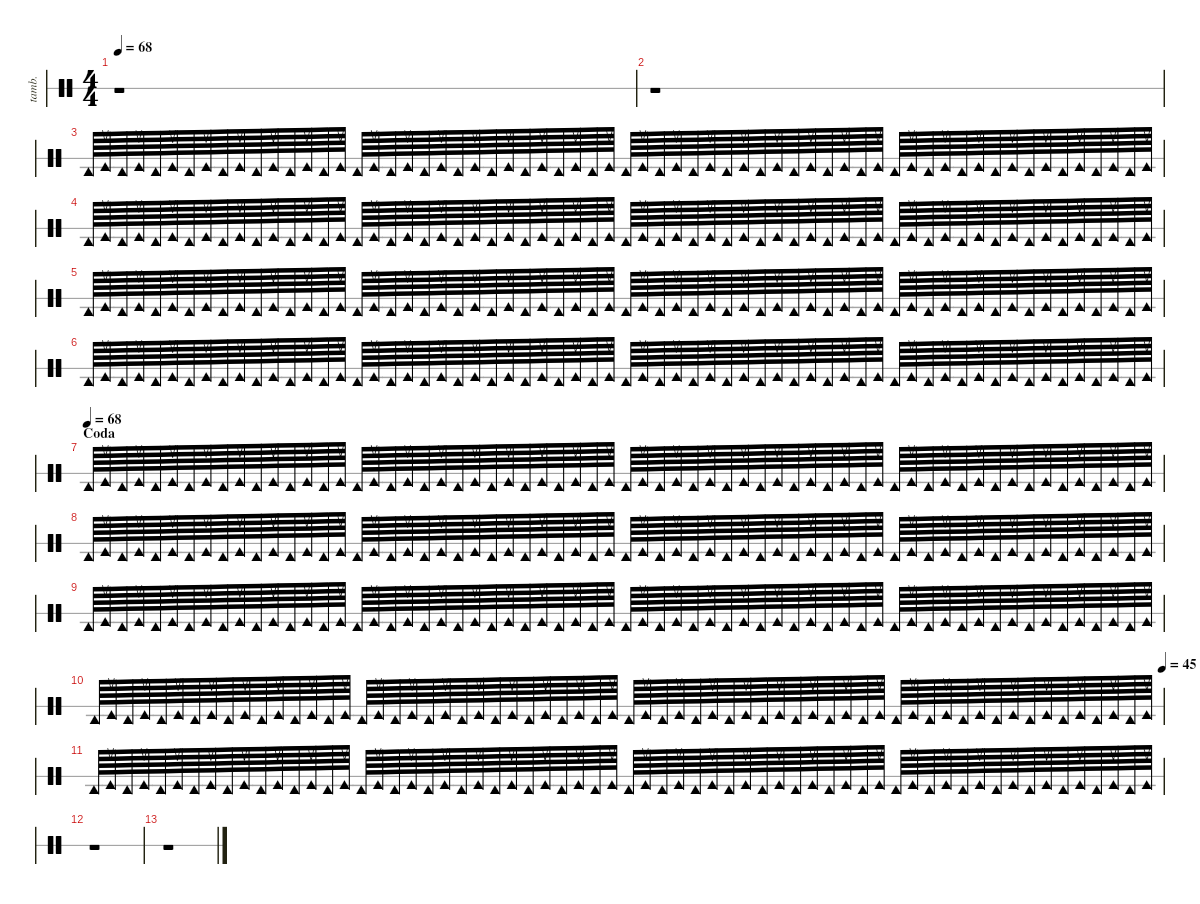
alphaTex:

\defaultSystemsLayout 4
\hideDynamics
\bracketExtendMode nobrackets
\otherSystemsTrackNameOrientation horizontal
\track ("Tambourine" "tamb.") {defaultSystemsLayout 4 instrument percussion}
\staff {score 1}
\articulation defaults
\ts (4 4)
\tempo 68
\clef neutral
\ks c
r.1{dy mp beam Down} |
r.1{beam Down} |
"Tambourine (hit)".64{beam Up} "Tambourine (return)".64{beam Up} "Tambourine (hit)".64{beam Up} "Tambourine (return)".64{beam Up} "Tambourine (hit)".64{beam Up} "Tambourine (return)".64{beam Up} "Tambourine (hit)".64{beam Up} "Tambourine (return)".64{beam Up} "Tambourine (hit)".64{beam Up} "Tambourine (return)".64{beam Up} "Tambourine (hit)".64{beam Up} "Tambourine (return)".64{beam Up} "Tambourine (hit)".64{beam Up} "Tambourine (return)".64{beam Up} "Tambourine (hit)".64{beam Up} "Tambourine (return)".64{beam Up} "Tambourine (hit)".64{beam Up} "Tambourine (return)".64{beam Up} "Tambourine (hit)".64{beam Up} "Tambourine (return)".64{beam Up} "Tambourine (hit)".64{beam Up} "Tambourine (return)".64{beam Up} "Tambourine (hit)".64{beam Up} "Tambourine (return)".64{beam Up} "Tambourine (hit)".64{beam Up} "Tambourine (return)".64{beam Up} "Tambourine (hit)".64{beam Up} "Tambourine (return)".64{beam Up} "Tambourine (hit)".64{beam Up} "Tambourine (return)".64{beam Up} "Tambourine (hit)".64{beam Up} "Tambourine (return)".64{beam Up} "Tambourine (hit)".64{beam Up} "Tambourine (return)".64{beam Up} "Tambourine (hit)".64{beam Up} "Tambourine (return)".64{beam Up} "Tambourine (hit)".64{beam Up} "Tambourine (return)".64{beam Up} "Tambourine (hit)".64{beam Up} "Tambourine (return)".64{beam Up} "Tambourine (hit)".64{beam Up} "Tambourine (return)".64{beam Up} "Tambourine (hit)".64{beam Up} "Tambourine (return)".64{beam Up} "Tambourine (hit)".64{beam Up} "Tambourine (return)".64{beam Up} "Tambourine (hit)".64{beam Up} "Tambourine (return)".64{beam Up} "Tambourine (hit)".64{beam Up} "Tambourine (return)".64{beam Up} "Tambourine (hit)".64{beam Up} "Tambourine (return)".64{beam Up} "Tambourine (hit)".64{beam Up} "Tambourine (return)".64{beam Up} "Tambourine (hit)".64{beam Up} "Tambourine (return)".64{beam Up} "Tambourine (hit)".64{beam Up} "Tambourine (return)".64{beam Up} "Tambourine (hit)".64{beam Up} "Tambourine (return)".64{beam Up} "Tambourine (hit)".64{beam Up} "Tambourine (return)".64{beam Up} "Tambourine (hit)".64{beam Up} "Tambourine (return)".64{beam Up} |
"Tambourine (hit)".64{beam Up} "Tambourine (return)".64{beam Up} "Tambourine (hit)".64{beam Up} "Tambourine (return)".64{beam Up} "Tambourine (hit)".64{beam Up} "Tambourine (return)".64{beam Up} "Tambourine (hit)".64{beam Up} "Tambourine (return)".64{beam Up} "Tambourine (hit)".64{beam Up} "Tambourine (return)".64{beam Up} "Tambourine (hit)".64{beam Up} "Tambourine (return)".64{beam Up} "Tambourine (hit)".64{beam Up} "Tambourine (return)".64{beam Up} "Tambourine (hit)".64{beam Up} "Tambourine (return)".64{beam Up} "Tambourine (hit)".64{beam Up} "Tambourine (return)".64{beam Up} "Tambourine (hit)".64{beam Up} "Tambourine (return)".64{beam Up} "Tambourine (hit)".64{beam Up} "Tambourine (return)".64{beam Up} "Tambourine (hit)".64{beam Up} "Tambourine (return)".64{beam Up} "Tambourine (hit)".64{beam Up} "Tambourine (return)".64{beam Up} "Tambourine (hit)".64{beam Up} "Tambourine (return)".64{beam Up} "Tambourine (hit)".64{beam Up} "Tambourine (return)".64{beam Up} "Tambourine (hit)".64{beam Up} "Tambourine (return)".64{beam Up} "Tambourine (hit)".64{beam Up} "Tambourine (return)".64{beam Up} "Tambourine (hit)".64{beam Up} "Tambourine (return)".64{beam Up} "Tambourine (hit)".64{beam Up} "Tambourine (return)".64{beam Up} "Tambourine (hit)".64{beam Up} "Tambourine (return)".64{beam Up} "Tambourine (hit)".64{beam Up} "Tambourine (return)".64{beam Up} "Tambourine (hit)".64{beam Up} "Tambourine (return)".64{beam Up} "Tambourine (hit)".64{beam Up} "Tambourine (return)".64{beam Up} "Tambourine (hit)".64{beam Up} "Tambourine (return)".64{beam Up} "Tambourine (hit)".64{beam Up} "Tambourine (return)".64{beam Up} "Tambourine (hit)".64{beam Up} "Tambourine (return)".64{beam Up} "Tambourine (hit)".64{beam Up} "Tambourine (return)".64{beam Up} "Tambourine (hit)".64{beam Up} "Tambourine (return)".64{beam Up} "Tambourine (hit)".64{beam Up} "Tambourine (return)".64{beam Up} "Tambourine (hit)".64{beam Up} "Tambourine (return)".64{beam Up} "Tambourine (hit)".64{beam Up} "Tambourine (return)".64{beam Up} "Tambourine (hit)".64{beam Up} "Tambourine (return)".64{beam Up} |
"Tambourine (hit)".64{beam Up} "Tambourine (return)".64{beam Up} "Tambourine (hit)".64{beam Up} "Tambourine (return)".64{beam Up} "Tambourine (hit)".64{beam Up} "Tambourine (return)".64{beam Up} "Tambourine (hit)".64{beam Up} "Tambourine (return)".64{beam Up} "Tambourine (hit)".64{beam Up} "Tambourine (return)".64{beam Up} "Tambourine (hit)".64{beam Up} "Tambourine (return)".64{beam Up} "Tambourine (hit)".64{beam Up} "Tambourine (return)".64{beam Up} "Tambourine (hit)".64{beam Up} "Tambourine (return)".64{beam Up} "Tambourine (hit)".64{beam Up} "Tambourine (return)".64{beam Up} "Tambourine (hit)".64{beam Up} "Tambourine (return)".64{beam Up} "Tambourine (hit)".64{beam Up} "Tambourine (return)".64{beam Up} "Tambourine (hit)".64{beam Up} "Tambourine (return)".64{beam Up} "Tambourine (hit)".64{beam Up} "Tambourine (return)".64{beam Up} "Tambourine (hit)".64{beam Up} "Tambourine (return)".64{beam Up} "Tambourine (hit)".64{beam Up} "Tambourine (return)".64{beam Up} "Tambourine (hit)".64{beam Up} "Tambourine (return)".64{beam Up} "Tambourine (hit)".64{beam Up} "Tambourine (return)".64{beam Up} "Tambourine (hit)".64{beam Up} "Tambourine (return)".64{beam Up} "Tambourine (hit)".64{beam Up} "Tambourine (return)".64{beam Up} "Tambourine (hit)".64{beam Up} "Tambourine (return)".64{beam Up} "Tambourine (hit)".64{beam Up} "Tambourine (return)".64{beam Up} "Tambourine (hit)".64{beam Up} "Tambourine (return)".64{beam Up} "Tambourine (hit)".64{beam Up} "Tambourine (return)".64{beam Up} "Tambourine (hit)".64{beam Up} "Tambourine (return)".64{beam Up} "Tambourine (hit)".64{beam Up} "Tambourine (return)".64{beam Up} "Tambourine (hit)".64{beam Up} "Tambourine (return)".64{beam Up} "Tambourine (hit)".64{beam Up} "Tambourine (return)".64{beam Up} "Tambourine (hit)".64{beam Up} "Tambourine (return)".64{beam Up} "Tambourine (hit)".64{beam Up} "Tambourine (return)".64{beam Up} "Tambourine (hit)".64{beam Up} "Tambourine (return)".64{beam Up} "Tambourine (hit)".64{beam Up} "Tambourine (return)".64{beam Up} "Tambourine (hit)".64{beam Up} "Tambourine (return)".64{beam Up} |
"Tambourine (hit)".64{beam Up} "Tambourine (return)".64{beam Up} "Tambourine (hit)".64{beam Up} "Tambourine (return)".64{beam Up} "Tambourine (hit)".64{beam Up} "Tambourine (return)".64{beam Up} "Tambourine (hit)".64{beam Up} "Tambourine (return)".64{beam Up} "Tambourine (hit)".64{beam Up} "Tambourine (return)".64{beam Up} "Tambourine (hit)".64{beam Up} "Tambourine (return)".64{beam Up} "Tambourine (hit)".64{beam Up} "Tambourine (return)".64{beam Up} "Tambourine (hit)".64{beam Up} "Tambourine (return)".64{beam Up} "Tambourine (hit)".64{beam Up} "Tambourine (return)".64{beam Up} "Tambourine (hit)".64{beam Up} "Tambourine (return)".64{beam Up} "Tambourine (hit)".64{beam Up} "Tambourine (return)".64{beam Up} "Tambourine (hit)".64{beam Up} "Tambourine (return)".64{beam Up} "Tambourine (hit)".64{beam Up} "Tambourine (return)".64{beam Up} "Tambourine (hit)".64{beam Up} "Tambourine (return)".64{beam Up} "Tambourine (hit)".64{beam Up} "Tambourine (return)".64{beam Up} "Tambourine (hit)".64{beam Up} "Tambourine (return)".64{beam Up} "Tambourine (hit)".64{beam Up} "Tambourine (return)".64{beam Up} "Tambourine (hit)".64{beam Up} "Tambourine (return)".64{beam Up} "Tambourine (hit)".64{beam Up} "Tambourine (return)".64{beam Up} "Tambourine (hit)".64{beam Up} "Tambourine (return)".64{beam Up} "Tambourine (hit)".64{beam Up} "Tambourine (return)".64{beam Up} "Tambourine (hit)".64{beam Up} "Tambourine (return)".64{beam Up} "Tambourine (hit)".64{beam Up} "Tambourine (return)".64{beam Up} "Tambourine (hit)".64{beam Up} "Tambourine (return)".64{beam Up} "Tambourine (hit)".64{beam Up} "Tambourine (return)".64{beam Up} "Tambourine (hit)".64{beam Up} "Tambourine (return)".64{beam Up} "Tambourine (hit)".64{beam Up} "Tambourine (return)".64{beam Up} "Tambourine (hit)".64{beam Up} "Tambourine (return)".64{beam Up} "Tambourine (hit)".64{beam Up} "Tambourine (return)".64{beam Up} "Tambourine (hit)".64{beam Up} "Tambourine (return)".64{beam Up} "Tambourine (hit)".64{beam Up} "Tambourine (return)".64{beam Up} "Tambourine (hit)".64{beam Up} "Tambourine (return)".64{beam Up} |
\section ("" "Coda")
\tempo (68)
"Tambourine (hit)".64{beam Up} "Tambourine (return)".64{beam Up} "Tambourine (hit)".64{beam Up} "Tambourine (return)".64{beam Up} "Tambourine (hit)".64{beam Up} "Tambourine (return)".64{beam Up} "Tambourine (hit)".64{beam Up} "Tambourine (return)".64{beam Up} "Tambourine (hit)".64{beam Up} "Tambourine (return)".64{beam Up} "Tambourine (hit)".64{beam Up} "Tambourine (return)".64{beam Up} "Tambourine (hit)".64{beam Up} "Tambourine (return)".64{beam Up} "Tambourine (hit)".64{beam Up} "Tambourine (return)".64{beam Up} "Tambourine (hit)".64{beam Up} "Tambourine (return)".64{beam Up} "Tambourine (hit)".64{beam Up} "Tambourine (return)".64{beam Up} "Tambourine (hit)".64{beam Up} "Tambourine (return)".64{beam Up} "Tambourine (hit)".64{beam Up} "Tambourine (return)".64{beam Up} "Tambourine (hit)".64{beam Up} "Tambourine (return)".64{beam Up} "Tambourine (hit)".64{beam Up} "Tambourine (return)".64{beam Up} "Tambourine (hit)".64{beam Up} "Tambourine (return)".64{beam Up} "Tambourine (hit)".64{beam Up} "Tambourine (return)".64{beam Up} "Tambourine (hit)".64{beam Up} "Tambourine (return)".64{beam Up} "Tambourine (hit)".64{beam Up} "Tambourine (return)".64{beam Up} "Tambourine (hit)".64{beam Up} "Tambourine (return)".64{beam Up} "Tambourine (hit)".64{beam Up} "Tambourine (return)".64{beam Up} "Tambourine (hit)".64{beam Up} "Tambourine (return)".64{beam Up} "Tambourine (hit)".64{beam Up} "Tambourine (return)".64{beam Up} "Tambourine (hit)".64{beam Up} "Tambourine (return)".64{beam Up} "Tambourine (hit)".64{beam Up} "Tambourine (return)".64{beam Up} "Tambourine (hit)".64{beam Up} "Tambourine (return)".64{beam Up} "Tambourine (hit)".64{beam Up} "Tambourine (return)".64{beam Up} "Tambourine (hit)".64{beam Up} "Tambourine (return)".64{beam Up} "Tambourine (hit)".64{beam Up} "Tambourine (return)".64{beam Up} "Tambourine (hit)".64{beam Up} "Tambourine (return)".64{beam Up} "Tambourine (hit)".64{beam Up} "Tambourine (return)".64{beam Up} "Tambourine (hit)".64{beam Up} "Tambourine (return)".64{beam Up} "Tambourine (hit)".64{beam Up} "Tambourine (return)".64{beam Up} |
"Tambourine (hit)".64{beam Up} "Tambourine (return)".64{beam Up} "Tambourine (hit)".64{beam Up} "Tambourine (return)".64{beam Up} "Tambourine (hit)".64{beam Up} "Tambourine (return)".64{beam Up} "Tambourine (hit)".64{beam Up} "Tambourine (return)".64{beam Up} "Tambourine (hit)".64{beam Up} "Tambourine (return)".64{beam Up} "Tambourine (hit)".64{beam Up} "Tambourine (return)".64{beam Up} "Tambourine (hit)".64{beam Up} "Tambourine (return)".64{beam Up} "Tambourine (hit)".64{beam Up} "Tambourine (return)".64{beam Up} "Tambourine (hit)".64{beam Up} "Tambourine (return)".64{beam Up} "Tambourine (hit)".64{beam Up} "Tambourine (return)".64{beam Up} "Tambourine (hit)".64{beam Up} "Tambourine (return)".64{beam Up} "Tambourine (hit)".64{beam Up} "Tambourine (return)".64{beam Up} "Tambourine (hit)".64{beam Up} "Tambourine (return)".64{beam Up} "Tambourine (hit)".64{beam Up} "Tambourine (return)".64{beam Up} "Tambourine (hit)".64{beam Up} "Tambourine (return)".64{beam Up} "Tambourine (hit)".64{beam Up} "Tambourine (return)".64{beam Up} "Tambourine (hit)".64{beam Up} "Tambourine (return)".64{beam Up} "Tambourine (hit)".64{beam Up} "Tambourine (return)".64{beam Up} "Tambourine (hit)".64{beam Up} "Tambourine (return)".64{beam Up} "Tambourine (hit)".64{beam Up} "Tambourine (return)".64{beam Up} "Tambourine (hit)".64{beam Up} "Tambourine (return)".64{beam Up} "Tambourine (hit)".64{beam Up} "Tambourine (return)".64{beam Up} "Tambourine (hit)".64{beam Up} "Tambourine (return)".64{beam Up} "Tambourine (hit)".64{beam Up} "Tambourine (return)".64{beam Up} "Tambourine (hit)".64{beam Up} "Tambourine (return)".64{beam Up} "Tambourine (hit)".64{beam Up} "Tambourine (return)".64{beam Up} "Tambourine (hit)".64{beam Up} "Tambourine (return)".64{beam Up} "Tambourine (hit)".64{beam Up} "Tambourine (return)".64{beam Up} "Tambourine (hit)".64{beam Up} "Tambourine (return)".64{beam Up} "Tambourine (hit)".64{beam Up} "Tambourine (return)".64{beam Up} "Tambourine (hit)".64{beam Up} "Tambourine (return)".64{beam Up} "Tambourine (hit)".64{beam Up} "Tambourine (return)".64{beam Up} |
"Tambourine (hit)".64{beam Up} "Tambourine (return)".64{beam Up} "Tambourine (hit)".64{beam Up} "Tambourine (return)".64{beam Up} "Tambourine (hit)".64{beam Up} "Tambourine (return)".64{beam Up} "Tambourine (hit)".64{beam Up} "Tambourine (return)".64{beam Up} "Tambourine (hit)".64{beam Up} "Tambourine (return)".64{beam Up} "Tambourine (hit)".64{beam Up} "Tambourine (return)".64{beam Up} "Tambourine (hit)".64{beam Up} "Tambourine (return)".64{beam Up} "Tambourine (hit)".64{beam Up} "Tambourine (return)".64{beam Up} "Tambourine (hit)".64{beam Up} "Tambourine (return)".64{beam Up} "Tambourine (hit)".64{beam Up} "Tambourine (return)".64{beam Up} "Tambourine (hit)".64{beam Up} "Tambourine (return)".64{beam Up} "Tambourine (hit)".64{beam Up} "Tambourine (return)".64{beam Up} "Tambourine (hit)".64{beam Up} "Tambourine (return)".64{beam Up} "Tambourine (hit)".64{beam Up} "Tambourine (return)".64{beam Up} "Tambourine (hit)".64{beam Up} "Tambourine (return)".64{beam Up} "Tambourine (hit)".64{beam Up} "Tambourine (return)".64{beam Up} "Tambourine (hit)".64{beam Up} "Tambourine (return)".64{beam Up} "Tambourine (hit)".64{beam Up} "Tambourine (return)".64{beam Up} "Tambourine (hit)".64{beam Up} "Tambourine (return)".64{beam Up} "Tambourine (hit)".64{beam Up} "Tambourine (return)".64{beam Up} "Tambourine (hit)".64{beam Up} "Tambourine (return)".64{beam Up} "Tambourine (hit)".64{beam Up} "Tambourine (return)".64{beam Up} "Tambourine (hit)".64{beam Up} "Tambourine (return)".64{beam Up} "Tambourine (hit)".64{beam Up} "Tambourine (return)".64{beam Up} "Tambourine (hit)".64{beam Up} "Tambourine (return)".64{beam Up} "Tambourine (hit)".64{beam Up} "Tambourine (return)".64{beam Up} "Tambourine (hit)".64{beam Up} "Tambourine (return)".64{beam Up} "Tambourine (hit)".64{beam Up} "Tambourine (return)".64{beam Up} "Tambourine (hit)".64{beam Up} "Tambourine (return)".64{beam Up} "Tambourine (hit)".64{beam Up} "Tambourine (return)".64{beam Up} "Tambourine (hit)".64{beam Up} "Tambourine (return)".64{beam Up} "Tambourine (hit)".64{beam Up} "Tambourine (return)".64{beam Up} |
\tempo (45 1)
"Tambourine (hit)".64{beam Up} "Tambourine (return)".64{beam Up} "Tambourine (hit)".64{beam Up} "Tambourine (return)".64{beam Up} "Tambourine (hit)".64{beam Up} "Tambourine (return)".64{beam Up} "Tambourine (hit)".64{beam Up} "Tambourine (return)".64{beam Up} "Tambourine (hit)".64{beam Up} "Tambourine (return)".64{beam Up} "Tambourine (hit)".64{beam Up} "Tambourine (return)".64{beam Up} "Tambourine (hit)".64{beam Up} "Tambourine (return)".64{beam Up} "Tambourine (hit)".64{beam Up} "Tambourine (return)".64{beam Up} "Tambourine (hit)".64{beam Up} "Tambourine (return)".64{beam Up} "Tambourine (hit)".64{beam Up} "Tambourine (return)".64{beam Up} "Tambourine (hit)".64{beam Up} "Tambourine (return)".64{beam Up} "Tambourine (hit)".64{beam Up} "Tambourine (return)".64{beam Up} "Tambourine (hit)".64{beam Up} "Tambourine (return)".64{beam Up} "Tambourine (hit)".64{beam Up} "Tambourine (return)".64{beam Up} "Tambourine (hit)".64{beam Up} "Tambourine (return)".64{beam Up} "Tambourine (hit)".64{beam Up} "Tambourine (return)".64{beam Up} "Tambourine (hit)".64{beam Up} "Tambourine (return)".64{beam Up} "Tambourine (hit)".64{beam Up} "Tambourine (return)".64{beam Up} "Tambourine (hit)".64{beam Up} "Tambourine (return)".64{beam Up} "Tambourine (hit)".64{beam Up} "Tambourine (return)".64{beam Up} "Tambourine (hit)".64{beam Up} "Tambourine (return)".64{beam Up} "Tambourine (hit)".64{beam Up} "Tambourine (return)".64{beam Up} "Tambourine (hit)".64{beam Up} "Tambourine (return)".64{beam Up} "Tambourine (hit)".64{beam Up} "Tambourine (return)".64{beam Up} "Tambourine (hit)".64{beam Up} "Tambourine (return)".64{beam Up} "Tambourine (hit)".64{beam Up} "Tambourine (return)".64{beam Up} "Tambourine (hit)".64{beam Up} "Tambourine (return)".64{beam Up} "Tambourine (hit)".64{beam Up} "Tambourine (return)".64{beam Up} "Tambourine (hit)".64{beam Up} "Tambourine (return)".64{beam Up} "Tambourine (hit)".64{beam Up} "Tambourine (return)".64{beam Up} "Tambourine (hit)".64{beam Up} "Tambourine (return)".64{beam Up} "Tambourine (hit)".64{beam Up} "Tambourine (return)".64{beam Up} |
"Tambourine (hit)".64{beam Up} "Tambourine (return)".64{beam Up} "Tambourine (hit)".64{beam Up} "Tambourine (return)".64{beam Up} "Tambourine (hit)".64{beam Up} "Tambourine (return)".64{beam Up} "Tambourine (hit)".64{beam Up} "Tambourine (return)".64{beam Up} "Tambourine (hit)".64{beam Up} "Tambourine (return)".64{beam Up} "Tambourine (hit)".64{beam Up} "Tambourine (return)".64{beam Up} "Tambourine (hit)".64{beam Up} "Tambourine (return)".64{beam Up} "Tambourine (hit)".64{beam Up} "Tambourine (return)".64{beam Up} "Tambourine (hit)".64{beam Up} "Tambourine (return)".64{beam Up} "Tambourine (hit)".64{beam Up} "Tambourine (return)".64{beam Up} "Tambourine (hit)".64{beam Up} "Tambourine (return)".64{beam Up} "Tambourine (hit)".64{beam Up} "Tambourine (return)".64{beam Up} "Tambourine (hit)".64{beam Up} "Tambourine (return)".64{beam Up} "Tambourine (hit)".64{beam Up} "Tambourine (return)".64{beam Up} "Tambourine (hit)".64{beam Up} "Tambourine (return)".64{beam Up} "Tambourine (hit)".64{beam Up} "Tambourine (return)".64{beam Up} "Tambourine (hit)".64{beam Up} "Tambourine (return)".64{beam Up} "Tambourine (hit)".64{beam Up} "Tambourine (return)".64{beam Up} "Tambourine (hit)".64{beam Up} "Tambourine (return)".64{beam Up} "Tambourine (hit)".64{beam Up} "Tambourine (return)".64{beam Up} "Tambourine (hit)".64{beam Up} "Tambourine (return)".64{beam Up} "Tambourine (hit)".64{beam Up} "Tambourine (return)".64{beam Up} "Tambourine (hit)".64{beam Up} "Tambourine (return)".64{beam Up} "Tambourine (hit)".64{beam Up} "Tambourine (return)".64{beam Up} "Tambourine (hit)".64{beam Up} "Tambourine (return)".64{beam Up} "Tambourine (hit)".64{beam Up} "Tambourine (return)".64{beam Up} "Tambourine (hit)".64{beam Up} "Tambourine (return)".64{beam Up} "Tambourine (hit)".64{beam Up} "Tambourine (return)".64{beam Up} "Tambourine (hit)".64{beam Up} "Tambourine (return)".64{beam Up} "Tambourine (hit)".64{beam Up} "Tambourine (return)".64{beam Up} "Tambourine (hit)".64{beam Up} "Tambourine (return)".64{beam Up} "Tambourine (hit)".64{beam Up} "Tambourine (return)".64{beam Up} |
r.1{beam Down} |
r.1{beam Down}
